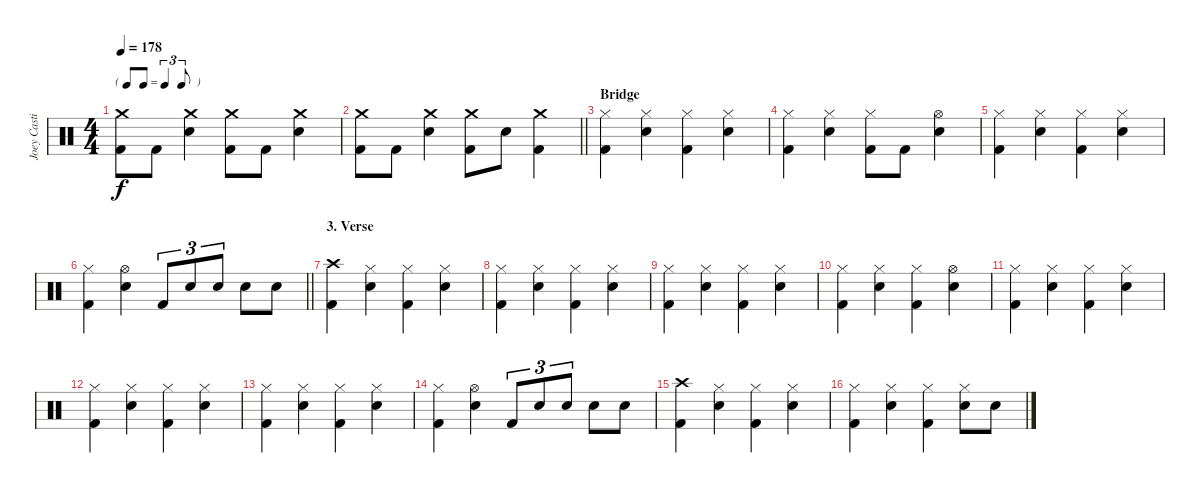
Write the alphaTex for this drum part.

\track ("Joey Castillo" "Joey Casti") {instrument percussion}
\staff {score}
\articulation defaults
\ts (4 4)
\tf triplet8th
\tempo 178
\clef neutral
\ks c
("Crash medium (hit)" "Kick (hit) 2").8{dy f} "Kick (hit) 2".8 ("Crash medium (hit)" "Snare (hit) 2").4 ("Crash medium (hit)" "Kick (hit) 2").8 "Kick (hit) 2".8 ("Crash medium (hit)" "Snare (hit) 2").4 |
\barLineRight lightlight
("Crash medium (hit)" "Kick (hit) 2").8 "Kick (hit) 2".8 ("Crash medium (hit)" "Snare (hit) 2").4 ("Crash medium (hit)" "Kick (hit) 2").8 "Snare (hit) 2".8 ("Crash medium (hit)" "Kick (hit) 2").4 |
\section ("" "Bridge")
("Hi-Hat (closed)" "Kick (hit) 2").4 ("Hi-Hat (closed)" "Snare (hit) 2").4 ("Hi-Hat (closed)" "Kick (hit) 2").4 ("Hi-Hat (closed)" "Snare (hit) 2").4 |
("Hi-Hat (closed)" "Kick (hit) 2").4 ("Hi-Hat (closed)" "Snare (hit) 2").4 ("Hi-Hat (closed)" "Kick (hit) 2").8 "Kick (hit) 2".8 ("Hi-Hat (open)" "Snare (hit) 2").4 |
("Hi-Hat (closed)" "Kick (hit) 2").4 ("Hi-Hat (closed)" "Snare (hit) 2").4 ("Hi-Hat (closed)" "Kick (hit) 2").4 ("Hi-Hat (closed)" "Snare (hit) 2").4 |
\barLineRight lightlight
("Hi-Hat (closed)" "Kick (hit) 2").4 ("Hi-Hat (open)" "Snare (hit) 2").4 "Kick (hit) 2".8{tu (3 2)} "Snare (hit) 2".8{tu (3 2)} "Snare (hit) 2".8{tu (3 2)} "Snare (hit) 2".8 "Snare (hit) 2".8 |
\section ("" "3. Verse")
("Crash high (hit)" "Kick (hit) 2").4 ("Hi-Hat (closed)" "Snare (hit) 2").4 ("Hi-Hat (closed)" "Kick (hit) 2").4 ("Hi-Hat (closed)" "Snare (hit) 2").4 |
("Hi-Hat (closed)" "Kick (hit) 2").4 ("Hi-Hat (closed)" "Snare (hit) 2").4 ("Hi-Hat (closed)" "Kick (hit) 2").4 ("Hi-Hat (closed)" "Snare (hit) 2").4 |
("Hi-Hat (closed)" "Kick (hit) 2").4 ("Hi-Hat (closed)" "Snare (hit) 2").4 ("Hi-Hat (closed)" "Kick (hit) 2").4 ("Hi-Hat (closed)" "Snare (hit) 2").4 |
("Hi-Hat (closed)" "Kick (hit) 2").4 ("Hi-Hat (closed)" "Snare (hit) 2").4 ("Hi-Hat (closed)" "Kick (hit) 2").4 ("Hi-Hat (open)" "Snare (hit) 2").4 |
("Hi-Hat (closed)" "Kick (hit) 2").4 ("Hi-Hat (closed)" "Snare (hit) 2").4 ("Hi-Hat (closed)" "Kick (hit) 2").4 ("Hi-Hat (closed)" "Snare (hit) 2").4 |
("Hi-Hat (closed)" "Kick (hit) 2").4 ("Hi-Hat (closed)" "Snare (hit) 2").4 ("Hi-Hat (closed)" "Kick (hit) 2").4 ("Hi-Hat (closed)" "Snare (hit) 2").4 |
("Hi-Hat (closed)" "Kick (hit) 2").4 ("Hi-Hat (closed)" "Snare (hit) 2").4 ("Hi-Hat (closed)" "Kick (hit) 2").4 ("Hi-Hat (closed)" "Snare (hit) 2").4 |
("Hi-Hat (closed)" "Kick (hit) 2").4 ("Hi-Hat (open)" "Snare (hit) 2").4 "Kick (hit) 2".8{tu (3 2)} "Snare (hit) 2".8{tu (3 2)} "Snare (hit) 2".8{tu (3 2)} "Snare (hit) 2".8 "Snare (hit) 2".8 |
("Crash high (hit)" "Kick (hit) 2").4 ("Hi-Hat (closed)" "Snare (hit) 2").4 ("Hi-Hat (closed)" "Kick (hit) 2").4 ("Hi-Hat (closed)" "Snare (hit) 2").4 |
("Hi-Hat (closed)" "Kick (hit) 2").4 ("Hi-Hat (closed)" "Snare (hit) 2").4 ("Hi-Hat (closed)" "Kick (hit) 2").4 ("Hi-Hat (closed)" "Snare (hit) 2").8 "Snare (hit) 2".8
